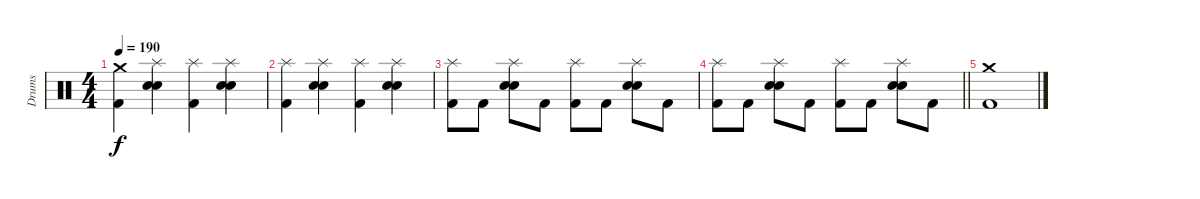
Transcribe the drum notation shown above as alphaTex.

\track ("Drums" "Drums") {instrument percussion}
\staff
\articulation defaults
\ts (4 4)
\tempo 190
\clef neutral
\ks c
("Crash medium (hit)" "Kick (hit) 2").4{dy f} ("Splash (hit)" "Electric Snare (hit)" "Snare (hit) 2").4 ("Splash (hit)" "Kick (hit) 2").4 ("Splash (hit)" "Electric Snare (hit)" "Snare (hit) 2").4 |
("Splash (hit)" "Kick (hit) 2").4 ("Splash (hit)" "Electric Snare (hit)" "Snare (hit) 2").4 ("Splash (hit)" "Kick (hit) 2").4 ("Splash (hit)" "Electric Snare (hit)" "Snare (hit) 2").4 |
("Splash (hit)" "Kick (hit) 2").8 "Kick (hit) 2".8 ("Splash (hit)" "Electric Snare (hit)" "Snare (hit) 2").8 "Kick (hit) 2".8 ("Splash (hit)" "Kick (hit) 2").8 "Kick (hit) 2".8 ("Splash (hit)" "Electric Snare (hit)" "Snare (hit) 2").8 "Kick (hit) 2".8 |
\barLineRight lightlight
("Splash (hit)" "Kick (hit) 2").8 "Kick (hit) 2".8 ("Splash (hit)" "Electric Snare (hit)" "Snare (hit) 2").8 "Kick (hit) 2".8 ("Splash (hit)" "Kick (hit) 2").8 "Kick (hit) 2".8 ("Splash (hit)" "Electric Snare (hit)" "Snare (hit) 2").8 "Kick (hit) 2".8 |
("Crash medium (hit)" "Kick (hit) 2").1
